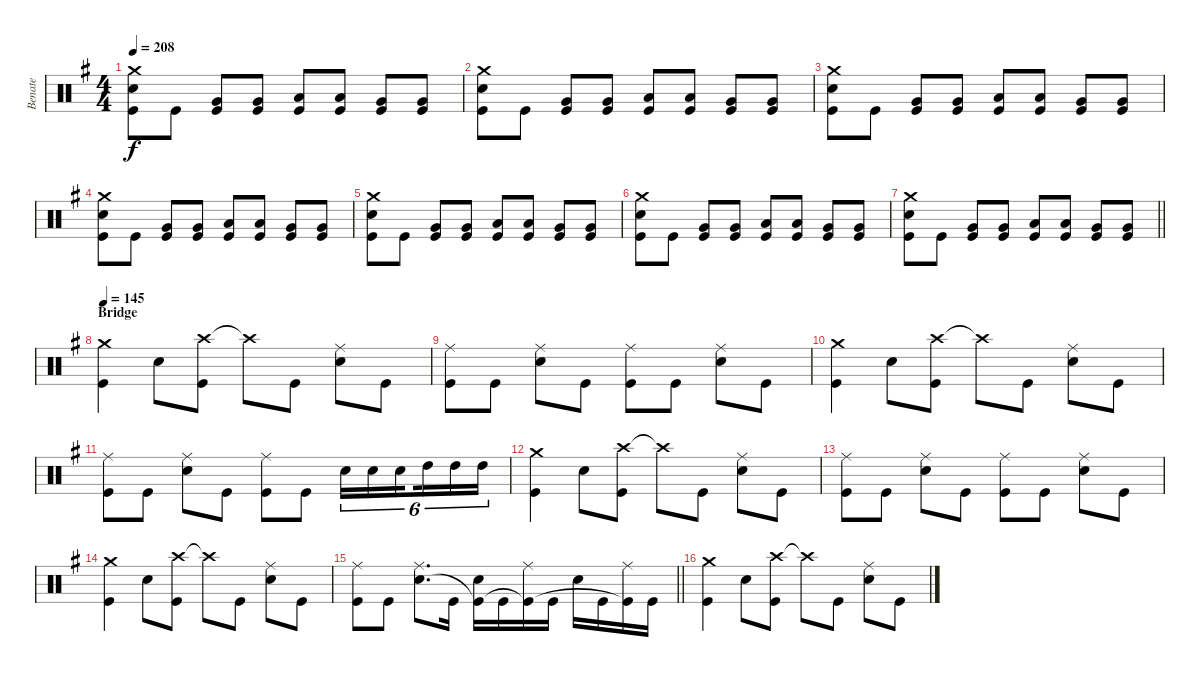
\track ("Benate" "Benate") {instrument percussion}
\staff {score}
\articulation defaults
\ts (4 4)
\tempo 208
\clef neutral
\ks g
("Crash medium (hit)" "Snare (hit) 2" "Kick (hit)").8{dy f} "Kick (hit)".8 ("Very Low Tom (hit)" "Kick (hit)").8 ("Very Low Tom (hit)" "Kick (hit)").8 ("Low Tom (hit)" "Kick (hit)").8 ("Low Tom (hit)" "Kick (hit)").8 ("Very Low Tom (hit)" "Kick (hit)").8 ("Very Low Tom (hit)" "Kick (hit)").8 |
("Crash medium (hit)" "Snare (hit) 2" "Kick (hit)").8 "Kick (hit)".8 ("Very Low Tom (hit)" "Kick (hit)").8 ("Very Low Tom (hit)" "Kick (hit)").8 ("Low Tom (hit)" "Kick (hit)").8 ("Low Tom (hit)" "Kick (hit)").8 ("Very Low Tom (hit)" "Kick (hit)").8 ("Very Low Tom (hit)" "Kick (hit)").8 |
("Crash medium (hit)" "Snare (hit) 2" "Kick (hit)").8 "Kick (hit)".8 ("Very Low Tom (hit)" "Kick (hit)").8 ("Very Low Tom (hit)" "Kick (hit)").8 ("Low Tom (hit)" "Kick (hit)").8 ("Low Tom (hit)" "Kick (hit)").8 ("Very Low Tom (hit)" "Kick (hit)").8 ("Very Low Tom (hit)" "Kick (hit)").8 |
("Crash medium (hit)" "Snare (hit) 2" "Kick (hit)").8 "Kick (hit)".8 ("Very Low Tom (hit)" "Kick (hit)").8 ("Very Low Tom (hit)" "Kick (hit)").8 ("Low Tom (hit)" "Kick (hit)").8 ("Low Tom (hit)" "Kick (hit)").8 ("Very Low Tom (hit)" "Kick (hit)").8 ("Very Low Tom (hit)" "Kick (hit)").8 |
("Crash medium (hit)" "Snare (hit) 2" "Kick (hit)").8 "Kick (hit)".8 ("Very Low Tom (hit)" "Kick (hit)").8 ("Very Low Tom (hit)" "Kick (hit)").8 ("Low Tom (hit)" "Kick (hit)").8 ("Low Tom (hit)" "Kick (hit)").8 ("Very Low Tom (hit)" "Kick (hit)").8 ("Very Low Tom (hit)" "Kick (hit)").8 |
("Crash medium (hit)" "Snare (hit) 2" "Kick (hit)").8 "Kick (hit)".8 ("Very Low Tom (hit)" "Kick (hit)").8 ("Very Low Tom (hit)" "Kick (hit)").8 ("Low Tom (hit)" "Kick (hit)").8 ("Low Tom (hit)" "Kick (hit)").8 ("Very Low Tom (hit)" "Kick (hit)").8 ("Very Low Tom (hit)" "Kick (hit)").8 |
\barLineRight lightlight
("Crash medium (hit)" "Snare (hit) 2" "Kick (hit)").8 "Kick (hit)".8 ("Very Low Tom (hit)" "Kick (hit)").8 ("Very Low Tom (hit)" "Kick (hit)").8 ("Low Tom (hit)" "Kick (hit)").8 ("Low Tom (hit)" "Kick (hit)").8 ("Very Low Tom (hit)" "Kick (hit)").8 ("Very Low Tom (hit)" "Kick (hit)").8 |
\section ("" "Bridge")
\tempo 145
("Crash medium (hit)" "Kick (hit)").4 "Snare (hit) 2".8 ("Crash high (hit)" "Kick (hit)").8 "Crash high (hit)"{t}.8 "Kick (hit)".8 ("Ride (middle)" "Snare (hit) 2").8 "Kick (hit)".8 |
("Ride (middle)" "Kick (hit)").8 "Kick (hit)".8 ("Ride (middle)" "Snare (hit) 2").8 "Kick (hit)".8 ("Ride (middle)" "Kick (hit)").8 "Kick (hit)".8 ("Ride (middle)" "Snare (hit) 2").8 "Kick (hit)".8 |
("Crash medium (hit)" "Kick (hit)").4 "Snare (hit) 2".8 ("Crash high (hit)" "Kick (hit)").8 "Crash high (hit)"{t}.8 "Kick (hit)".8 ("Ride (middle)" "Snare (hit) 2").8 "Kick (hit)".8 |
("Ride (middle)" "Kick (hit)").8 "Kick (hit)".8 ("Ride (middle)" "Snare (hit) 2").8 "Kick (hit)".8 ("Ride (middle)" "Kick (hit)").8 "Kick (hit)".8 "Snare (hit) 2".16{tu (6 4)} "Snare (hit) 2".16{tu (6 4)} "Snare (hit) 2".16{tu (6 4) beam splitsecondary} "High Tom (hit)".16{tu (6 4)} "High Tom (hit)".16{tu (6 4)} "High Tom (hit)".16{tu (6 4)} |
("Crash medium (hit)" "Kick (hit)").4 "Snare (hit) 2".8 ("Crash high (hit)" "Kick (hit)").8 "Crash high (hit)"{t}.8 "Kick (hit)".8 ("Ride (middle)" "Snare (hit) 2").8 "Kick (hit)".8 |
("Ride (middle)" "Kick (hit)").8 "Kick (hit)".8 ("Ride (middle)" "Snare (hit) 2").8 "Kick (hit)".8 ("Ride (middle)" "Kick (hit)").8 "Kick (hit)".8 ("Ride (middle)" "Snare (hit) 2").8 "Kick (hit)".8 |
("Crash medium (hit)" "Kick (hit)").4 "Snare (hit) 2".8 ("Crash high (hit)" "Kick (hit)").8 "Crash high (hit)"{t}.8 "Kick (hit)".8 ("Ride (middle)" "Snare (hit) 2").8 "Kick (hit)".8 |
\barLineRight lightlight
("Ride (middle)" "Kick (hit)").8 "Kick (hit)".8 ("Ride (middle)" "Snare (hit) 2").8{d} "Kick (hit)".16 ("Snare (hit) 2" "Kick (hit)"{t}).16 "Kick (hit)".16 ("Ride (middle)" "Kick (hit)"{t}).16 "Kick (hit)".16 "Snare (hit) 2".16 "Kick (hit)".16 ("Ride (middle)" "Kick (hit)"{t}).16 "Kick (hit)".16 |
("Crash medium (hit)" "Kick (hit)").4 "Snare (hit) 2".8 ("Crash high (hit)" "Kick (hit)").8 "Crash high (hit)"{t}.8 "Kick (hit)".8 ("Ride (middle)" "Snare (hit) 2").8 "Kick (hit)".8
